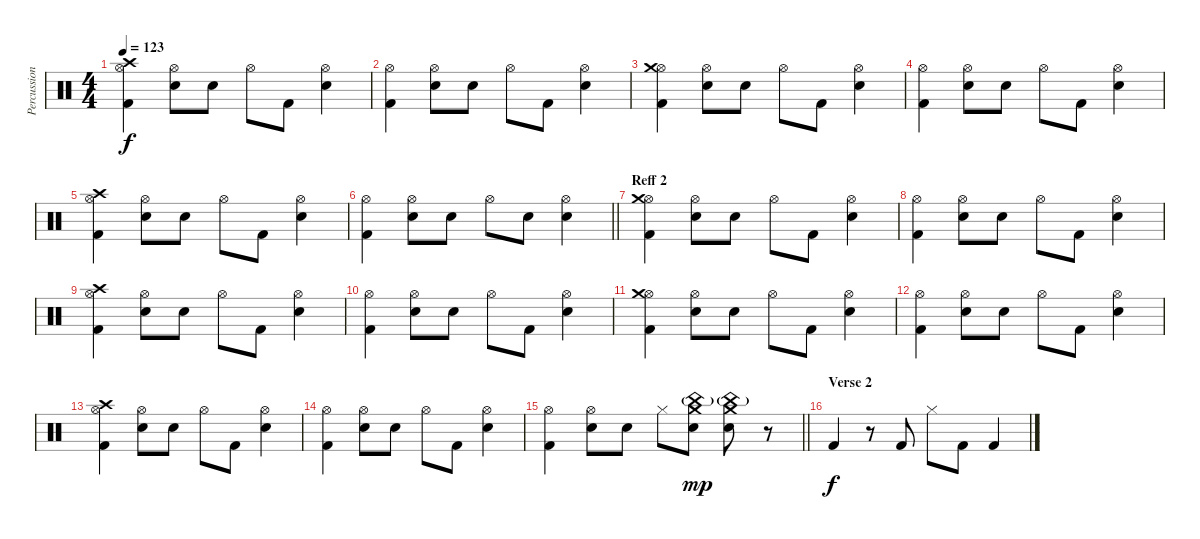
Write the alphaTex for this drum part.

\track ("Percussion 1" "Percussion") {instrument percussion}
\staff {score}
\articulation defaults
\ts (4 4)
\tempo 123
\clef neutral
\ks c
("Hi-Hat (open)" "Crash high (hit)" "Kick (hit) 2").4{dy f} ("Hi-Hat (open)" "Electric Snare (hit)").8 "Electric Snare (hit)".8 "Hi-Hat (open)".8 "Kick (hit) 2".8 ("Hi-Hat (open)" "Electric Snare (hit)").4 |
("Hi-Hat (open)" "Kick (hit) 2").4 ("Hi-Hat (open)" "Electric Snare (hit)").8 "Electric Snare (hit)".8 "Hi-Hat (open)".8 "Kick (hit) 2".8 ("Hi-Hat (open)" "Electric Snare (hit)").4 |
("Hi-Hat (open)" "Crash medium (hit)" "Kick (hit) 2").4 ("Hi-Hat (open)" "Electric Snare (hit)").8 "Electric Snare (hit)".8 "Hi-Hat (open)".8 "Kick (hit) 2".8 ("Hi-Hat (open)" "Electric Snare (hit)").4 |
("Hi-Hat (open)" "Kick (hit) 2").4 ("Hi-Hat (open)" "Electric Snare (hit)").8 "Electric Snare (hit)".8 "Hi-Hat (open)".8 "Kick (hit) 2".8 ("Hi-Hat (open)" "Electric Snare (hit)").4 |
("Hi-Hat (open)" "Crash high (hit)" "Kick (hit) 2").4 ("Hi-Hat (open)" "Electric Snare (hit)").8 "Electric Snare (hit)".8 "Hi-Hat (open)".8 "Kick (hit) 2".8 ("Hi-Hat (open)" "Electric Snare (hit)").4 |
\barLineRight lightlight
("Hi-Hat (open)" "Kick (hit) 2").4 ("Hi-Hat (open)" "Electric Snare (hit)").8 "Electric Snare (hit)".8 "Hi-Hat (open)".8 "Electric Snare (hit)".8 ("Hi-Hat (open)" "Electric Snare (hit)").4 |
\section ("" "Reff 2")
("Hi-Hat (open)" "Crash medium (hit)" "Kick (hit) 2").4 ("Hi-Hat (open)" "Electric Snare (hit)").8 "Electric Snare (hit)".8 "Hi-Hat (open)".8 "Kick (hit) 2".8 ("Hi-Hat (open)" "Electric Snare (hit)").4 |
("Hi-Hat (open)" "Kick (hit) 2").4 ("Hi-Hat (open)" "Electric Snare (hit)").8 "Electric Snare (hit)".8 "Hi-Hat (open)".8 "Kick (hit) 2".8 ("Hi-Hat (open)" "Electric Snare (hit)").4 |
("Hi-Hat (open)" "Crash high (hit)" "Kick (hit) 2").4 ("Hi-Hat (open)" "Electric Snare (hit)").8 "Electric Snare (hit)".8 "Hi-Hat (open)".8 "Kick (hit) 2".8 ("Hi-Hat (open)" "Electric Snare (hit)").4 |
("Hi-Hat (open)" "Kick (hit) 2").4 ("Hi-Hat (open)" "Electric Snare (hit)").8 "Electric Snare (hit)".8 "Hi-Hat (open)".8 "Kick (hit) 2".8 ("Hi-Hat (open)" "Electric Snare (hit)").4 |
("Hi-Hat (open)" "Crash medium (hit)" "Kick (hit) 2").4 ("Hi-Hat (open)" "Electric Snare (hit)").8 "Electric Snare (hit)".8 "Hi-Hat (open)".8 "Kick (hit) 2".8 ("Hi-Hat (open)" "Electric Snare (hit)").4 |
("Hi-Hat (open)" "Kick (hit) 2").4 ("Hi-Hat (open)" "Electric Snare (hit)").8 "Electric Snare (hit)".8 "Hi-Hat (open)".8 "Kick (hit) 2".8 ("Hi-Hat (open)" "Electric Snare (hit)").4 |
("Hi-Hat (open)" "Crash high (hit)" "Kick (hit) 2").4 ("Hi-Hat (open)" "Electric Snare (hit)").8 "Electric Snare (hit)".8 "Hi-Hat (open)".8 "Kick (hit) 2".8 ("Hi-Hat (open)" "Electric Snare (hit)").4 |
("Hi-Hat (open)" "Kick (hit) 2").4 ("Hi-Hat (open)" "Electric Snare (hit)").8 "Electric Snare (hit)".8 "Hi-Hat (open)".8 "Kick (hit) 2".8 ("Hi-Hat (open)" "Electric Snare (hit)").4 |
\barLineRight lightlight
("Hi-Hat (open)" "Kick (hit) 2").4 ("Hi-Hat (open)" "Electric Snare (hit)").8 "Electric Snare (hit)".8 "Hi-Hat (closed)".8 ("Electric Snare (hit)" "Crash medium (hit)" "China (hit)"{g}).8{dy mp} ("Electric Snare (hit)" "Crash medium (hit)" "China (hit)"{g}).8 r.8 |
\section ("" "Verse 2")
"Kick (hit) 2".4{dy f} r.8 "Kick (hit) 2".8 "Hi-Hat (closed)".8 "Kick (hit) 2".8 "Kick (hit) 2".4
